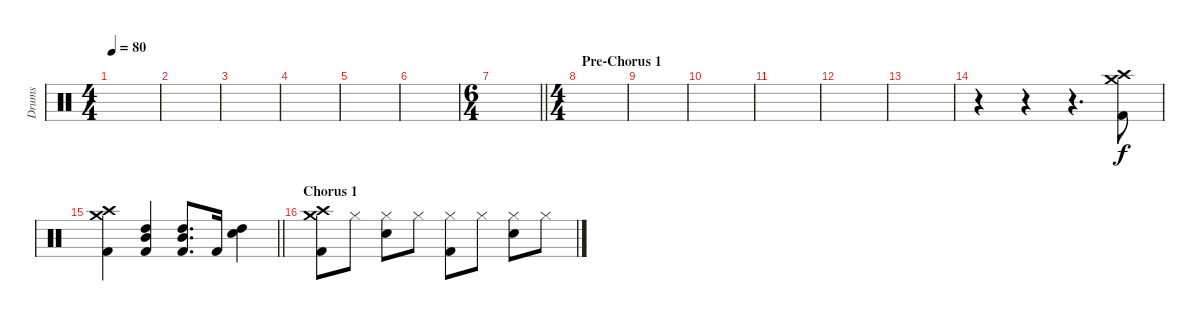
\track ("Drums" "Drums") {instrument percussion}
\staff {score}
\articulation defaults
\ts (4 4)
\tempo 80
\clef neutral
\ks c
|
|
|
|
|
|
\ts (6 4)
\barLineRight lightlight
|
\ts (4 4)
\section ("" "Pre-Chorus 1")
|
|
|
|
|
|
r.4 r.4 r.4{d} ("Crash medium (hit)" "Crash high (hit)" "Kick (hit) 2").8 |
\barLineRight lightlight
("Crash medium (hit)" "Crash high (hit)" "Kick (hit) 2").4 ("High Tom (hit)" "Mid Tom (hit)" "Kick (hit) 2").4 ("High Tom (hit)" "Mid Tom (hit)" "Kick (hit) 2").8{d} "Kick (hit) 2".16 ("High Tom (hit)" "Snare (hit) 2").4 |
\section ("" "Chorus 1")
("Crash medium (hit)" "Crash high (hit)" "Kick (hit) 2").8 "Hi-Hat (closed)".8 ("Hi-Hat (closed)" "Snare (hit) 2").8 "Hi-Hat (closed)".8 ("Hi-Hat (closed)" "Kick (hit) 2").8 "Hi-Hat (closed)".8 ("Hi-Hat (closed)" "Snare (hit) 2").8 "Hi-Hat (closed)".8
